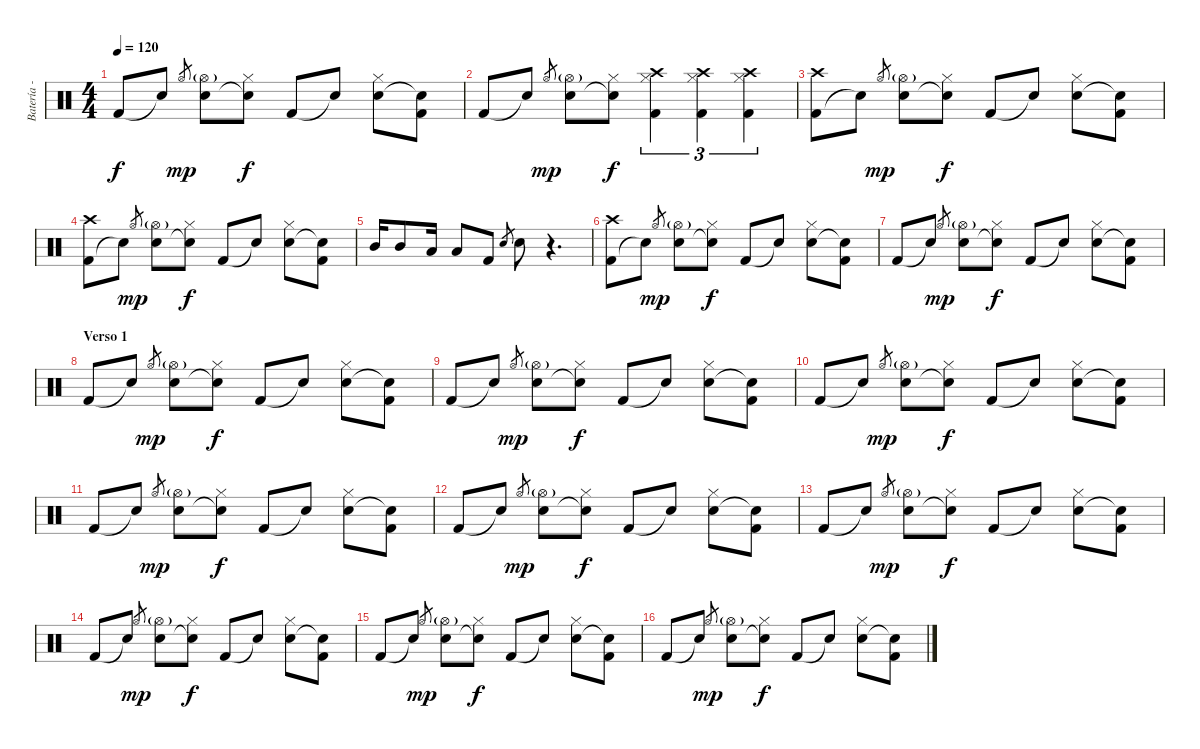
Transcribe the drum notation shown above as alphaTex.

\track ("Batería - Txus" "Batería - ") {instrument percussion}
\staff {score}
\articulation defaults
\ts (4 4)
\tempo 120
\clef neutral
\ks c "Kick (hit) 2".8{dy f} "Snare (hit)"{t}.8 "Hi-Hat (open)".8{gr dy mp}
("Snare (hit) 2" "Hi-Hat (open)"{g}).8 ("Snare (hit)"{t} "Hi-Hat (closed)").8{dy f} "Kick (hit) 2".8 "Snare (hit)"{t}.8 ("Snare (hit) 2" "Hi-Hat (closed)").8 ("Snare (hit)"{t} "Kick (hit) 2").8 |
"Kick (hit) 2".8 "Snare (hit)"{t}.8 "Hi-Hat (open)".8{gr dy mp} ("Snare (hit) 2" "Hi-Hat (open)"{g}).8 ("Snare (hit)"{t} "Hi-Hat (closed)").8{dy f} ("Kick (hit) 2" "Hi-Hat (closed)" "Crash high (hit)").4{tu (3 2)} ("Kick (hit) 2" "Hi-Hat (closed)" "Crash high (hit)").4{tu (3 2)} ("Kick (hit) 2" "Hi-Hat (closed)" "Crash high (hit)").4{tu (3 2)} |
("Kick (hit) 2" "Crash high (hit)").8 "Snare (hit)"{t}.8 "Hi-Hat (open)".8{gr dy mp} ("Snare (hit) 2" "Hi-Hat (open)"{g}).8 ("Snare (hit)"{t} "Hi-Hat (closed)").8{dy f} "Kick (hit) 2".8 "Snare (hit)"{t}.8 ("Snare (hit) 2" "Hi-Hat (closed)").8 ("Snare (hit)"{t} "Kick (hit) 2").8 |
("Kick (hit) 2" "Crash high (hit)").8 "Snare (hit)"{t}.8 "Hi-Hat (open)".8{gr dy mp} ("Snare (hit) 2" "Hi-Hat (open)"{g}).8 ("Snare (hit)"{t} "Hi-Hat (closed)").8{dy f} "Kick (hit) 2".8 "Snare (hit)"{t}.8 ("Snare (hit) 2" "Hi-Hat (closed)").8 ("Snare (hit)"{t} "Kick (hit) 2").8 |
"Mid Tom (hit)".16 "Mid Tom (hit)".8 "Low Tom (hit)".16 "Low Tom (hit)".8 "Kick (hit) 2".8 "Snare (hit) 2".8{gr} "Snare (hit) 2".8 r.4{d} |
("Kick (hit) 2" "Crash high (hit)").8 "Snare (hit)"{t}.8 "Hi-Hat (open)".8{gr dy mp} ("Snare (hit) 2" "Hi-Hat (open)"{g}).8 ("Snare (hit)"{t} "Hi-Hat (closed)").8{dy f} "Kick (hit) 2".8 "Snare (hit)"{t}.8 ("Snare (hit) 2" "Hi-Hat (closed)").8 ("Snare (hit)"{t} "Kick (hit) 2").8 |
"Kick (hit) 2".8 "Snare (hit)"{t}.8 "Hi-Hat (open)".8{gr dy mp} ("Snare (hit) 2" "Hi-Hat (open)"{g}).8 ("Snare (hit)"{t} "Hi-Hat (closed)").8{dy f} "Kick (hit) 2".8 "Snare (hit)"{t}.8 ("Snare (hit) 2" "Hi-Hat (closed)").8 ("Snare (hit)"{t} "Kick (hit) 2").8 |
\section ("" "Verso 1")
"Kick (hit) 2".8 "Snare (hit)"{t}.8 "Hi-Hat (open)".8{gr dy mp} ("Snare (hit) 2" "Hi-Hat (open)"{g}).8 ("Snare (hit)"{t} "Hi-Hat (closed)").8{dy f} "Kick (hit) 2".8 "Snare (hit)"{t}.8 ("Snare (hit) 2" "Hi-Hat (closed)").8 ("Snare (hit)"{t} "Kick (hit) 2").8 |
"Kick (hit) 2".8 "Snare (hit)"{t}.8 "Hi-Hat (open)".8{gr dy mp} ("Snare (hit) 2" "Hi-Hat (open)"{g}).8 ("Snare (hit)"{t} "Hi-Hat (closed)").8{dy f} "Kick (hit) 2".8 "Snare (hit)"{t}.8 ("Snare (hit) 2" "Hi-Hat (closed)").8 ("Snare (hit)"{t} "Kick (hit) 2").8 |
"Kick (hit) 2".8 "Snare (hit)"{t}.8 "Hi-Hat (open)".8{gr dy mp} ("Snare (hit) 2" "Hi-Hat (open)"{g}).8 ("Snare (hit)"{t} "Hi-Hat (closed)").8{dy f} "Kick (hit) 2".8 "Snare (hit)"{t}.8 ("Snare (hit) 2" "Hi-Hat (closed)").8 ("Snare (hit)"{t} "Kick (hit) 2").8 |
"Kick (hit) 2".8 "Snare (hit)"{t}.8 "Hi-Hat (open)".8{gr dy mp} ("Snare (hit) 2" "Hi-Hat (open)"{g}).8 ("Snare (hit)"{t} "Hi-Hat (closed)").8{dy f} "Kick (hit) 2".8 "Snare (hit)"{t}.8 ("Snare (hit) 2" "Hi-Hat (closed)").8 ("Snare (hit)"{t} "Kick (hit) 2").8 |
"Kick (hit) 2".8 "Snare (hit)"{t}.8 "Hi-Hat (open)".8{gr dy mp} ("Snare (hit) 2" "Hi-Hat (open)"{g}).8 ("Snare (hit)"{t} "Hi-Hat (closed)").8{dy f} "Kick (hit) 2".8 "Snare (hit)"{t}.8 ("Snare (hit) 2" "Hi-Hat (closed)").8 ("Snare (hit)"{t} "Kick (hit) 2").8 |
"Kick (hit) 2".8 "Snare (hit)"{t}.8 "Hi-Hat (open)".8{gr dy mp} ("Snare (hit) 2" "Hi-Hat (open)"{g}).8 ("Snare (hit)"{t} "Hi-Hat (closed)").8{dy f} "Kick (hit) 2".8 "Snare (hit)"{t}.8 ("Snare (hit) 2" "Hi-Hat (closed)").8 ("Snare (hit)"{t} "Kick (hit) 2").8 |
"Kick (hit) 2".8 "Snare (hit)"{t}.8 "Hi-Hat (open)".8{gr dy mp} ("Snare (hit) 2" "Hi-Hat (open)"{g}).8 ("Snare (hit)"{t} "Hi-Hat (closed)").8{dy f} "Kick (hit) 2".8 "Snare (hit)"{t}.8 ("Snare (hit) 2" "Hi-Hat (closed)").8 ("Snare (hit)"{t} "Kick (hit) 2").8 |
"Kick (hit) 2".8 "Snare (hit)"{t}.8 "Hi-Hat (open)".8{gr dy mp} ("Snare (hit) 2" "Hi-Hat (open)"{g}).8 ("Snare (hit)"{t} "Hi-Hat (closed)").8{dy f} "Kick (hit) 2".8 "Snare (hit)"{t}.8 ("Snare (hit) 2" "Hi-Hat (closed)").8 ("Snare (hit)"{t} "Kick (hit) 2").8 |
"Kick (hit) 2".8 "Snare (hit)"{t}.8 "Hi-Hat (open)".8{gr dy mp} ("Snare (hit) 2" "Hi-Hat (open)"{g}).8 ("Snare (hit)"{t} "Hi-Hat (closed)").8{dy f} "Kick (hit) 2".8 "Snare (hit)"{t}.8 ("Snare (hit) 2" "Hi-Hat (closed)").8 ("Snare (hit)"{t} "Kick (hit) 2").8
